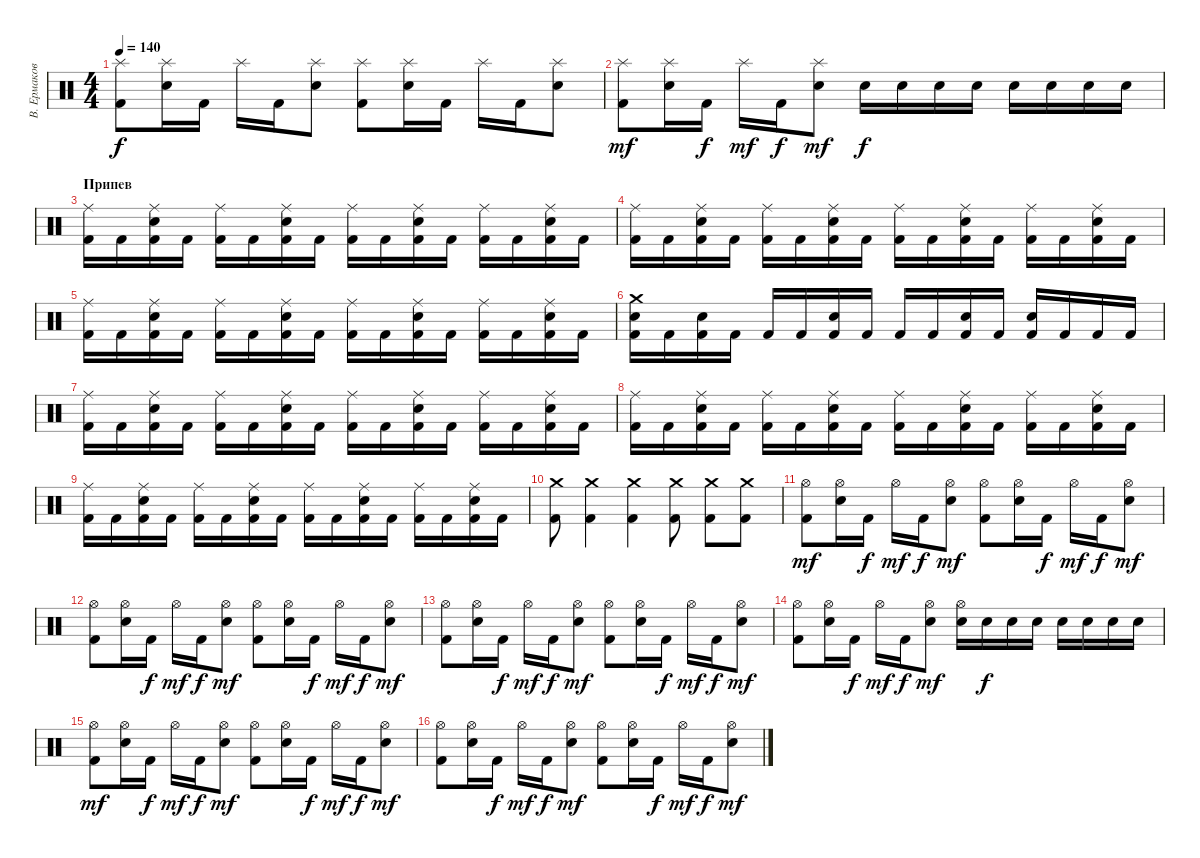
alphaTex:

\track ("В. Ермаков" "В. Ермаков") {instrument percussion}
\staff {score}
\articulation defaults
\ts (4 4)
\tempo 140
\clef neutral
\ks c
("Splash (hit)" "Kick (hit) 2").8{dy f} ("Splash (hit)" "Electric Snare (hit)").16 "Kick (hit) 2".16 "Splash (hit)".16 "Kick (hit) 2".16 ("Splash (hit)" "Electric Snare (hit)").8 ("Splash (hit)" "Kick (hit) 2").8 ("Splash (hit)" "Electric Snare (hit)").16 "Kick (hit) 2".16 "Splash (hit)".16 "Kick (hit) 2".16 ("Splash (hit)" "Electric Snare (hit)").8 |
("Splash (hit)" "Kick (hit) 2").8{dy mf} ("Splash (hit)" "Electric Snare (hit)").16 "Kick (hit) 2".16{dy f} "Splash (hit)".16{dy mf} "Kick (hit) 2".16{dy f} ("Splash (hit)" "Electric Snare (hit)").8{dy mf} "Electric Snare (hit)".16{dy f} "Electric Snare (hit)".16 "Electric Snare (hit)".16 "Electric Snare (hit)".16 "Electric Snare (hit)".16 "Electric Snare (hit)".16 "Electric Snare (hit)".16 "Electric Snare (hit)".16 |
\section ("" "Припев")
("Kick (hit) 2" "Ride (middle)").16 "Kick (hit) 2".16 ("Kick (hit) 2" "Electric Snare (hit)" "Ride (middle)").16 "Kick (hit) 2".16 ("Kick (hit) 2" "Ride (middle)").16 "Kick (hit) 2".16 ("Kick (hit) 2" "Electric Snare (hit)" "Ride (middle)").16 "Kick (hit) 2".16 ("Kick (hit) 2" "Ride (middle)").16 "Kick (hit) 2".16 ("Kick (hit) 2" "Electric Snare (hit)" "Ride (middle)").16 "Kick (hit) 2".16 ("Kick (hit) 2" "Ride (middle)").16 "Kick (hit) 2".16 ("Kick (hit) 2" "Electric Snare (hit)" "Ride (middle)").16 "Kick (hit) 2".16 |
("Kick (hit) 2" "Ride (middle)").16 "Kick (hit) 2".16 ("Kick (hit) 2" "Electric Snare (hit)" "Ride (middle)").16 "Kick (hit) 2".16 ("Kick (hit) 2" "Ride (middle)").16 "Kick (hit) 2".16 ("Kick (hit) 2" "Electric Snare (hit)" "Ride (middle)").16 "Kick (hit) 2".16 ("Kick (hit) 2" "Ride (middle)").16 "Kick (hit) 2".16 ("Kick (hit) 2" "Electric Snare (hit)" "Ride (middle)").16 "Kick (hit) 2".16 ("Kick (hit) 2" "Ride (middle)").16 "Kick (hit) 2".16 ("Kick (hit) 2" "Electric Snare (hit)" "Ride (middle)").16 "Kick (hit) 2".16 |
("Kick (hit) 2" "Ride (middle)").16 "Kick (hit) 2".16 ("Kick (hit) 2" "Electric Snare (hit)" "Ride (middle)").16 "Kick (hit) 2".16 ("Kick (hit) 2" "Ride (middle)").16 "Kick (hit) 2".16 ("Kick (hit) 2" "Electric Snare (hit)" "Ride (middle)").16 "Kick (hit) 2".16 ("Kick (hit) 2" "Ride (middle)").16 "Kick (hit) 2".16 ("Kick (hit) 2" "Electric Snare (hit)" "Ride (middle)").16 "Kick (hit) 2".16 ("Kick (hit) 2" "Ride (middle)").16 "Kick (hit) 2".16 ("Kick (hit) 2" "Electric Snare (hit)" "Ride (middle)").16 "Kick (hit) 2".16 |
("Kick (hit) 2" "Electric Snare (hit)" "Crash medium (hit)").16 "Kick (hit) 2".16 ("Kick (hit) 2" "Electric Snare (hit)").16 "Kick (hit) 2".16 "Kick (hit) 2".16 "Kick (hit) 2".16 ("Kick (hit) 2" "Electric Snare (hit)").16 "Kick (hit) 2".16 "Kick (hit) 2".16 "Kick (hit) 2".16 ("Kick (hit) 2" "Electric Snare (hit)").16 "Kick (hit) 2".16 ("Kick (hit) 2" "Electric Snare (hit)").16 "Kick (hit) 2".16 "Kick (hit) 2".16 "Kick (hit) 2".16 |
("Kick (hit) 2" "Ride (middle)").16 "Kick (hit) 2".16 ("Kick (hit) 2" "Electric Snare (hit)" "Ride (middle)").16 "Kick (hit) 2".16 ("Kick (hit) 2" "Ride (middle)").16 "Kick (hit) 2".16 ("Kick (hit) 2" "Electric Snare (hit)" "Ride (middle)").16 "Kick (hit) 2".16 ("Kick (hit) 2" "Ride (middle)").16 "Kick (hit) 2".16 ("Kick (hit) 2" "Electric Snare (hit)" "Ride (middle)").16 "Kick (hit) 2".16 ("Kick (hit) 2" "Ride (middle)").16 "Kick (hit) 2".16 ("Kick (hit) 2" "Electric Snare (hit)" "Ride (middle)").16 "Kick (hit) 2".16 |
("Kick (hit) 2" "Ride (middle)").16 "Kick (hit) 2".16 ("Kick (hit) 2" "Electric Snare (hit)" "Ride (middle)").16 "Kick (hit) 2".16 ("Kick (hit) 2" "Ride (middle)").16 "Kick (hit) 2".16 ("Kick (hit) 2" "Electric Snare (hit)" "Ride (middle)").16 "Kick (hit) 2".16 ("Kick (hit) 2" "Ride (middle)").16 "Kick (hit) 2".16 ("Kick (hit) 2" "Electric Snare (hit)" "Ride (middle)").16 "Kick (hit) 2".16 ("Kick (hit) 2" "Ride (middle)").16 "Kick (hit) 2".16 ("Kick (hit) 2" "Electric Snare (hit)" "Ride (middle)").16 "Kick (hit) 2".16 |
("Kick (hit) 2" "Ride (middle)").16 "Kick (hit) 2".16 ("Kick (hit) 2" "Electric Snare (hit)" "Ride (middle)").16 "Kick (hit) 2".16 ("Kick (hit) 2" "Ride (middle)").16 "Kick (hit) 2".16 ("Kick (hit) 2" "Electric Snare (hit)" "Ride (middle)").16 "Kick (hit) 2".16 ("Kick (hit) 2" "Ride (middle)").16 "Kick (hit) 2".16 ("Kick (hit) 2" "Electric Snare (hit)" "Ride (middle)").16 "Kick (hit) 2".16 ("Kick (hit) 2" "Ride (middle)").16 "Kick (hit) 2".16 ("Kick (hit) 2" "Electric Snare (hit)" "Ride (middle)").16 "Kick (hit) 2".16 |
("Crash medium (hit)" "Kick (hit) 2").8 ("Crash medium (hit)" "Kick (hit) 2").4 ("Crash medium (hit)" "Kick (hit) 2").4 ("Crash medium (hit)" "Kick (hit) 2").8 ("Crash medium (hit)" "Kick (hit) 2").8 ("Crash medium (hit)" "Kick (hit) 2").8 |
("Hi-Hat (open)" "Kick (hit) 2").8{dy mf} ("Hi-Hat (open)" "Electric Snare (hit)").16 "Kick (hit) 2".16{dy f} "Hi-Hat (open)".16{dy mf} "Kick (hit) 2".16{dy f} ("Hi-Hat (open)" "Electric Snare (hit)").8{dy mf} ("Hi-Hat (open)" "Kick (hit) 2").8 ("Hi-Hat (open)" "Electric Snare (hit)").16 "Kick (hit) 2".16{dy f} "Hi-Hat (open)".16{dy mf} "Kick (hit) 2".16{dy f} ("Hi-Hat (open)" "Electric Snare (hit)").8{dy mf} |
("Hi-Hat (open)" "Kick (hit) 2").8 ("Hi-Hat (open)" "Electric Snare (hit)").16 "Kick (hit) 2".16{dy f} "Hi-Hat (open)".16{dy mf} "Kick (hit) 2".16{dy f} ("Hi-Hat (open)" "Electric Snare (hit)").8{dy mf} ("Hi-Hat (open)" "Kick (hit) 2").8 ("Hi-Hat (open)" "Electric Snare (hit)").16 "Kick (hit) 2".16{dy f} "Hi-Hat (open)".16{dy mf} "Kick (hit) 2".16{dy f} ("Hi-Hat (open)" "Electric Snare (hit)").8{dy mf} |
("Hi-Hat (open)" "Kick (hit) 2").8 ("Hi-Hat (open)" "Electric Snare (hit)").16 "Kick (hit) 2".16{dy f} "Hi-Hat (open)".16{dy mf} "Kick (hit) 2".16{dy f} ("Hi-Hat (open)" "Electric Snare (hit)").8{dy mf} ("Hi-Hat (open)" "Kick (hit) 2").8 ("Hi-Hat (open)" "Electric Snare (hit)").16 "Kick (hit) 2".16{dy f} "Hi-Hat (open)".16{dy mf} "Kick (hit) 2".16{dy f} ("Hi-Hat (open)" "Electric Snare (hit)").8{dy mf} |
("Hi-Hat (open)" "Kick (hit) 2").8 ("Hi-Hat (open)" "Electric Snare (hit)").16 "Kick (hit) 2".16{dy f} "Hi-Hat (open)".16{dy mf} "Kick (hit) 2".16{dy f} ("Hi-Hat (open)" "Electric Snare (hit)").8{dy mf} ("Hi-Hat (open)" "Electric Snare (hit)").16 "Electric Snare (hit)".16{dy f} "Electric Snare (hit)".16 "Electric Snare (hit)".16 "Electric Snare (hit)".16 "Electric Snare (hit)".16 "Electric Snare (hit)".16 "Electric Snare (hit)".16 |
("Hi-Hat (open)" "Kick (hit) 2").8{dy mf} ("Hi-Hat (open)" "Electric Snare (hit)").16 "Kick (hit) 2".16{dy f} "Hi-Hat (open)".16{dy mf} "Kick (hit) 2".16{dy f} ("Hi-Hat (open)" "Electric Snare (hit)").8{dy mf} ("Hi-Hat (open)" "Kick (hit) 2").8 ("Hi-Hat (open)" "Electric Snare (hit)").16 "Kick (hit) 2".16{dy f} "Hi-Hat (open)".16{dy mf} "Kick (hit) 2".16{dy f} ("Hi-Hat (open)" "Electric Snare (hit)").8{dy mf} |
("Hi-Hat (open)" "Kick (hit) 2").8 ("Hi-Hat (open)" "Electric Snare (hit)").16 "Kick (hit) 2".16{dy f} "Hi-Hat (open)".16{dy mf} "Kick (hit) 2".16{dy f} ("Hi-Hat (open)" "Electric Snare (hit)").8{dy mf} ("Hi-Hat (open)" "Kick (hit) 2").8 ("Hi-Hat (open)" "Electric Snare (hit)").16 "Kick (hit) 2".16{dy f} "Hi-Hat (open)".16{dy mf} "Kick (hit) 2".16{dy f} ("Hi-Hat (open)" "Electric Snare (hit)").8{dy mf}
